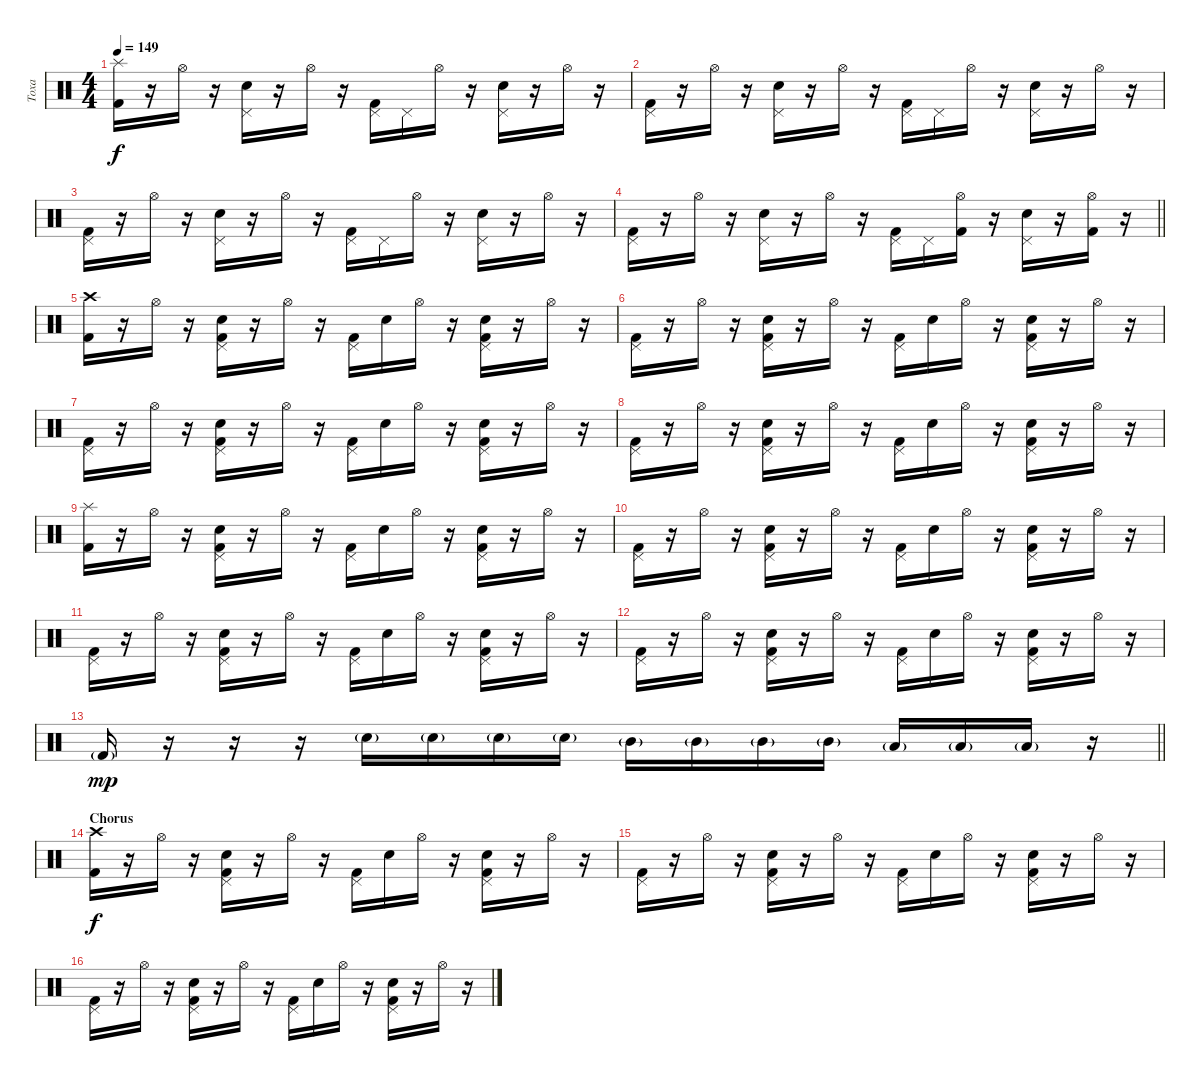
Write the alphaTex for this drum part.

\track ("Toxa" "Toxa") {instrument percussion}
\staff {score}
\articulation defaults
\ts (4 4)
\tempo 149
\clef neutral
\ks c
("Kick (hit) 2" "Splash (hit)").16{dy f} r.16 "Hi-Hat (open)".16 r.16 ("Snare (hit) 2" "Pedal Hi-Hat (hit)").16 r.16 "Hi-Hat (open)".16 r.16 ("Kick (hit) 2" "Pedal Hi-Hat (hit)").16 "Pedal Hi-Hat (hit)".16 "Hi-Hat (open)".16 r.16 ("Snare (hit) 2" "Pedal Hi-Hat (hit)").16 r.16 "Hi-Hat (open)".16 r.16 |
("Kick (hit) 2" "Pedal Hi-Hat (hit)").16 r.16 "Hi-Hat (open)".16 r.16 ("Snare (hit) 2" "Pedal Hi-Hat (hit)").16 r.16 "Hi-Hat (open)".16 r.16 ("Kick (hit) 2" "Pedal Hi-Hat (hit)").16 "Pedal Hi-Hat (hit)".16 "Hi-Hat (open)".16 r.16 ("Snare (hit) 2" "Pedal Hi-Hat (hit)").16 r.16 "Hi-Hat (open)".16 r.16 |
("Kick (hit) 2" "Pedal Hi-Hat (hit)").16 r.16 "Hi-Hat (open)".16 r.16 ("Snare (hit) 2" "Pedal Hi-Hat (hit)").16 r.16 "Hi-Hat (open)".16 r.16 ("Kick (hit) 2" "Pedal Hi-Hat (hit)").16 "Pedal Hi-Hat (hit)".16 "Hi-Hat (open)".16 r.16 ("Snare (hit) 2" "Pedal Hi-Hat (hit)").16 r.16 "Hi-Hat (open)".16 r.16 |
\barLineRight lightlight
("Kick (hit) 2" "Pedal Hi-Hat (hit)").16 r.16 "Hi-Hat (open)".16 r.16 ("Snare (hit) 2" "Pedal Hi-Hat (hit)").16 r.16 "Hi-Hat (open)".16 r.16 ("Kick (hit) 2" "Pedal Hi-Hat (hit)").16 "Pedal Hi-Hat (hit)".16 ("Hi-Hat (open)" "Kick (hit) 2").16 r.16 ("Snare (hit) 2" "Pedal Hi-Hat (hit)").16 r.16 ("Hi-Hat (open)" "Kick (hit) 2").16 r.16 |
("Kick (hit) 2" "Crash high (hit)").16 r.16 "Hi-Hat (open)".16 r.16 ("Snare (hit) 2" "Pedal Hi-Hat (hit)" "Kick (hit) 2").16 r.16 "Hi-Hat (open)".16 r.16 ("Kick (hit) 2" "Pedal Hi-Hat (hit)").16 "Snare (hit) 2".16 "Hi-Hat (open)".16 r.16 ("Snare (hit) 2" "Kick (hit) 2" "Pedal Hi-Hat (hit)").16 r.16 "Hi-Hat (open)".16 r.16 |
("Kick (hit) 2" "Pedal Hi-Hat (hit)").16 r.16 "Hi-Hat (open)".16 r.16 ("Snare (hit) 2" "Pedal Hi-Hat (hit)" "Kick (hit) 2").16 r.16 "Hi-Hat (open)".16 r.16 ("Kick (hit) 2" "Pedal Hi-Hat (hit)").16 "Snare (hit) 2".16 "Hi-Hat (open)".16 r.16 ("Snare (hit) 2" "Kick (hit) 2" "Pedal Hi-Hat (hit)").16 r.16 "Hi-Hat (open)".16 r.16 |
("Kick (hit) 2" "Pedal Hi-Hat (hit)").16 r.16 "Hi-Hat (open)".16 r.16 ("Snare (hit) 2" "Pedal Hi-Hat (hit)" "Kick (hit) 2").16 r.16 "Hi-Hat (open)".16 r.16 ("Kick (hit) 2" "Pedal Hi-Hat (hit)").16 "Snare (hit) 2".16 "Hi-Hat (open)".16 r.16 ("Snare (hit) 2" "Kick (hit) 2" "Pedal Hi-Hat (hit)").16 r.16 "Hi-Hat (open)".16 r.16 |
("Kick (hit) 2" "Pedal Hi-Hat (hit)").16 r.16 "Hi-Hat (open)".16 r.16 ("Snare (hit) 2" "Pedal Hi-Hat (hit)" "Kick (hit) 2").16 r.16 "Hi-Hat (open)".16 r.16 ("Kick (hit) 2" "Pedal Hi-Hat (hit)").16 "Snare (hit) 2".16 "Hi-Hat (open)".16 r.16 ("Snare (hit) 2" "Kick (hit) 2" "Pedal Hi-Hat (hit)").16 r.16 "Hi-Hat (open)".16 r.16 |
("Kick (hit) 2" "Splash (hit)").16 r.16 "Hi-Hat (open)".16 r.16 ("Snare (hit) 2" "Pedal Hi-Hat (hit)" "Kick (hit) 2").16 r.16 "Hi-Hat (open)".16 r.16 ("Kick (hit) 2" "Pedal Hi-Hat (hit)").16 "Snare (hit) 2".16 "Hi-Hat (open)".16 r.16 ("Snare (hit) 2" "Kick (hit) 2" "Pedal Hi-Hat (hit)").16 r.16 "Hi-Hat (open)".16 r.16 |
("Kick (hit) 2" "Pedal Hi-Hat (hit)").16 r.16 "Hi-Hat (open)".16 r.16 ("Snare (hit) 2" "Pedal Hi-Hat (hit)" "Kick (hit) 2").16 r.16 "Hi-Hat (open)".16 r.16 ("Kick (hit) 2" "Pedal Hi-Hat (hit)").16 "Snare (hit) 2".16 "Hi-Hat (open)".16 r.16 ("Snare (hit) 2" "Kick (hit) 2" "Pedal Hi-Hat (hit)").16 r.16 "Hi-Hat (open)".16 r.16 |
("Kick (hit) 2" "Pedal Hi-Hat (hit)").16 r.16 "Hi-Hat (open)".16 r.16 ("Snare (hit) 2" "Pedal Hi-Hat (hit)" "Kick (hit) 2").16 r.16 "Hi-Hat (open)".16 r.16 ("Kick (hit) 2" "Pedal Hi-Hat (hit)").16 "Snare (hit) 2".16 "Hi-Hat (open)".16 r.16 ("Snare (hit) 2" "Kick (hit) 2" "Pedal Hi-Hat (hit)").16 r.16 "Hi-Hat (open)".16 r.16 |
("Kick (hit) 2" "Pedal Hi-Hat (hit)").16 r.16 "Hi-Hat (open)".16 r.16 ("Snare (hit) 2" "Pedal Hi-Hat (hit)" "Kick (hit) 2").16 r.16 "Hi-Hat (open)".16 r.16 ("Kick (hit) 2" "Pedal Hi-Hat (hit)").16 "Snare (hit) 2".16 "Hi-Hat (open)".16 r.16 ("Snare (hit) 2" "Kick (hit) 2" "Pedal Hi-Hat (hit)").16 r.16 "Hi-Hat (open)".16 r.16 |
\barLineRight lightlight "Kick (hit) 2"{g}.16{dy mp}
r.16 r.16 r.16 "Snare (hit) 2"{g}.16 "Snare (hit) 2"{g}.16 "Snare (hit) 2"{g}.16 "Snare (hit) 2"{g}.16 "Mid Tom (hit)"{g}.16 "Mid Tom (hit)"{g}.16 "Mid Tom (hit)"{g}.16 "Mid Tom (hit)"{g}.16 "Low Tom (hit)"{g}.16 "Low Tom (hit)"{g}.16 "Low Tom (hit)"{g}.16 r.16 |
\section ("" "Chorus")
("Kick (hit) 2" "Crash high (hit)").16{dy f} r.16 "Hi-Hat (open)".16 r.16 ("Snare (hit) 2" "Pedal Hi-Hat (hit)" "Kick (hit) 2").16 r.16 "Hi-Hat (open)".16 r.16 ("Kick (hit) 2" "Pedal Hi-Hat (hit)").16 "Snare (hit) 2".16 "Hi-Hat (open)".16 r.16 ("Snare (hit) 2" "Kick (hit) 2" "Pedal Hi-Hat (hit)").16 r.16 "Hi-Hat (open)".16 r.16 |
("Kick (hit) 2" "Pedal Hi-Hat (hit)").16 r.16 "Hi-Hat (open)".16 r.16 ("Snare (hit) 2" "Pedal Hi-Hat (hit)" "Kick (hit) 2").16 r.16 "Hi-Hat (open)".16 r.16 ("Kick (hit) 2" "Pedal Hi-Hat (hit)").16 "Snare (hit) 2".16 "Hi-Hat (open)".16 r.16 ("Snare (hit) 2" "Kick (hit) 2" "Pedal Hi-Hat (hit)").16 r.16 "Hi-Hat (open)".16 r.16 |
("Kick (hit) 2" "Pedal Hi-Hat (hit)").16 r.16 "Hi-Hat (open)".16 r.16 ("Snare (hit) 2" "Pedal Hi-Hat (hit)" "Kick (hit) 2").16 r.16 "Hi-Hat (open)".16 r.16 ("Kick (hit) 2" "Pedal Hi-Hat (hit)").16 "Snare (hit) 2".16 "Hi-Hat (open)".16 r.16 ("Snare (hit) 2" "Kick (hit) 2" "Pedal Hi-Hat (hit)").16 r.16 "Hi-Hat (open)".16 r.16
